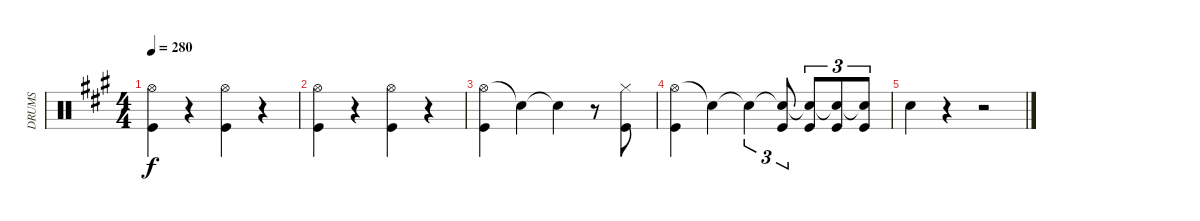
\track ("DRUMS" "DRUMS") {instrument percussion}
\staff {score}
\articulation defaults
\ts (4 4)
\tempo 280
\clef neutral
\ks a
("Hi-Hat (open)" "Kick (hit)").4{dy f} r.4 ("Hi-Hat (open)" "Kick (hit)").4 r.4 |
("Hi-Hat (open)" "Kick (hit)").4 r.4 ("Hi-Hat (open)" "Kick (hit)").4 r.4 |
("Hi-Hat (open)" "Kick (hit)").4 "Snare (hit)"{t}.4 "Snare (hit)"{t}.4 r.8 ("Hi-Hat (closed)" "Kick (hit)").8 |
("Hi-Hat (open)" "Kick (hit)").4 "Snare (hit)"{t}.4 "Snare (hit)"{t}.4{tu (3 2)} ("Snare (hit)"{t} "Kick (hit)").8{tu (3 2)} ("Snare (hit)"{t} "Kick (hit)").8{tu (3 2)} ("Snare (hit)"{t} "Kick (hit)").8{tu (3 2)} ("Snare (hit)"{t} "Kick (hit)").8{tu (3 2)} |
"Snare (hit) 2".4 r.4 r.2
